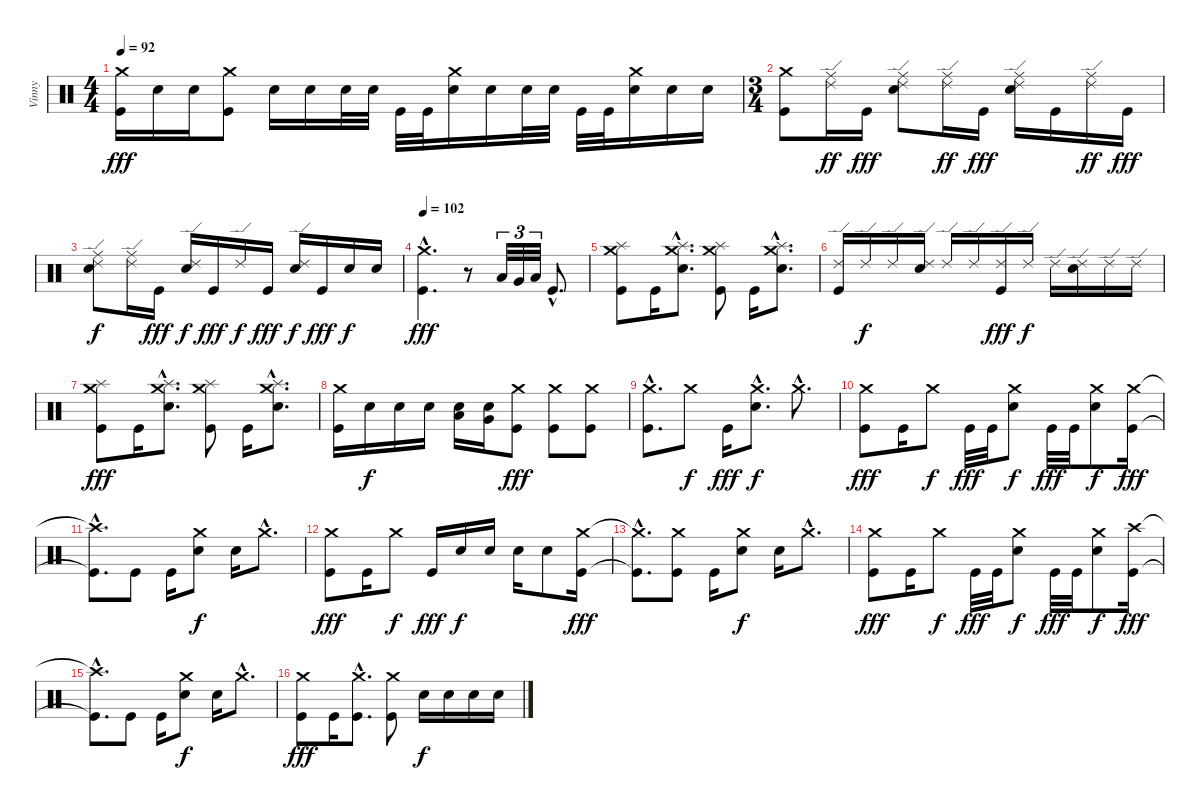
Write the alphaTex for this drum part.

\track ("Vinny" "Vinny") {instrument percussion}
\staff {score}
\articulation defaults
\ts (4 4)
\tempo 92
\clef neutral
\ks c
("Crash medium (hit)" "Kick (hit)").16{dy fff} "Electric Snare (hit)".16 "Electric Snare (hit)".16 ("Crash medium (hit)" "Kick (hit)").8 "Electric Snare (hit)".16 "Electric Snare (hit)".16 "Electric Snare (hit)".32 "Electric Snare (hit)".32 "Kick (hit)".32 "Kick (hit)".32 ("Crash medium (hit)" "Electric Snare (hit)").16 "Electric Snare (hit)".16 "Electric Snare (hit)".32 "Electric Snare (hit)".32 "Kick (hit)".32 "Kick (hit)".32 ("Crash medium (hit)" "Electric Snare (hit)").16 "Electric Snare (hit)".16 "Electric Snare (hit)".16 |
\ts (3 4)
\section ("" "")
("Crash medium (hit)" "Kick (hit)").8 ("Ride (middle)" "Ride (edge) 2").16{dy ff} "Kick (hit)".16{dy fff} ("Ride (middle)" "Ride (edge) 2" "Electric Snare (hit)").8 ("Ride (middle)" "Ride (edge) 2").16{dy ff} "Kick (hit)".16{dy fff} ("Ride (middle)" "Ride (edge) 2" "Electric Snare (hit)").16 "Kick (hit)".16 ("Ride (middle)" "Ride (edge) 2").16{dy ff} "Kick (hit)".16{dy fff} |
("Ride (middle)" "Ride (edge) 2" "Electric Snare (hit)").8{dy f} ("Ride (middle)" "Ride (edge) 2").16 "Kick (hit)".16{dy fff} ("Ride (edge) 2" "Electric Snare (hit)").16{dy f} "Kick (hit)".16{dy fff} "Ride (edge) 2".16{dy f} "Kick (hit)".16{dy fff} ("Ride (edge) 2" "Electric Snare (hit)").16{dy f} "Kick (hit)".16{dy fff} "Electric Snare (hit)".16{dy f} "Electric Snare (hit)".16 |
\tempo 102
("Crash medium (hit)"{hac} "Kick (hit)"{hac}).4{d dy fff} r.8 "Low Tom (hit)".32{tu (3 2)} "Very Low Tom (hit)".32{tu (3 2)} "Low Floor Tom (hit)".32{tu (3 2)} "Kick (hit)"{hac}.8{d} |
\section ("" "")
("Crash medium (hit)" "Splash (hit)" "Kick (hit)").8 "Kick (hit)".16 ("Crash medium (hit)"{hac} "Splash (hit)"{hac} "Electric Snare (hit)").8{d} ("Crash medium (hit)" "Splash (hit)" "Kick (hit)").8 "Kick (hit)".16 ("Crash medium (hit)"{hac} "Splash (hit)"{hac} "Electric Snare (hit)").8{d} |
("Ride (edge) 2" "Kick (hit)").16 "Ride (edge) 2".16{dy f} "Ride (edge) 2".16 ("Ride (edge) 2" "Electric Snare (hit)").16 "Ride (edge) 2".16 "Ride (edge) 2".16 ("Ride (edge) 2" "Kick (hit)").16{dy fff} "Ride (edge) 2".16{dy f} "Ride (edge) 2".16 ("Ride (edge) 2" "Electric Snare (hit)").16 "Ride (edge) 2".16 "Ride (edge) 2".16 |
("Crash medium (hit)" "Splash (hit)" "Kick (hit)").8{dy fff} "Kick (hit)".16 ("Crash medium (hit)"{hac} "Splash (hit)"{hac} "Electric Snare (hit)").8{d} ("Crash medium (hit)" "Splash (hit)" "Kick (hit)").8 "Kick (hit)".16 ("Crash medium (hit)"{hac} "Splash (hit)"{hac} "Electric Snare (hit)").8{d} |
("Crash medium (hit)" "Kick (hit)").16 "Electric Snare (hit)".16{dy f} "Electric Snare (hit)".16 "Electric Snare (hit)".16 ("Electric Snare (hit)" "Low Tom (hit)").16 ("Electric Snare (hit)" "Very Low Tom (hit)").16 ("Crash medium (hit)" "Kick (hit)").8{dy fff} ("Crash medium (hit)" "Kick (hit)").8 ("Crash medium (hit)" "Kick (hit)").8 |
\section ("" "")
("Crash medium (hit)"{hac} "Kick (hit)"{hac}).8{d} "Crash medium (hit)".8{dy f} "Kick (hit)".16{dy fff} ("Crash medium (hit)"{hac} "Electric Snare (hit)"{hac}).8{d dy f} "Crash medium (hit)"{hac}.8{d} |
("Crash medium (hit)" "Kick (hit)").8{dy fff} "Kick (hit)".16 "Crash medium (hit)".8{dy f} "Kick (hit)".32{dy fff} "Kick (hit)".32 ("Crash medium (hit)" "Electric Snare (hit)").8{dy f} "Kick (hit)".32{dy fff} "Kick (hit)".32 ("Crash medium (hit)" "Electric Snare (hit)").8{dy f} ("Crash medium (hit)" "Kick (hit)").16{dy fff} |
("Crash high (hit)"{hac t} "Kick (hit)"{hac t}).8{d} "Kick (hit)".8 "Kick (hit)".16 ("Crash medium (hit)" "Electric Snare (hit)").8{dy f} "Electric Snare (hit)".16 "Crash medium (hit)"{hac}.8{d} |
("Crash medium (hit)" "Kick (hit)").8{dy fff} "Kick (hit)".16 "Crash medium (hit)".8{dy f} "Kick (hit)".16{dy fff} "Electric Snare (hit)".16{dy f} "Electric Snare (hit)".16 "Electric Snare (hit)".16 "Electric Snare (hit)".8 ("Crash medium (hit)" "Kick (hit)").16{dy fff} |
("Crash medium (hit)"{hac t} "Kick (hit)"{hac t}).8{d} ("Crash medium (hit)" "Kick (hit)").8 "Kick (hit)".16 ("Crash medium (hit)" "Electric Snare (hit)").8{dy f} "Electric Snare (hit)".16 "Crash medium (hit)"{hac}.8{d} |
("Crash medium (hit)" "Kick (hit)").8{dy fff} "Kick (hit)".16 "Crash medium (hit)".8{dy f} "Kick (hit)".32{dy fff} "Kick (hit)".32 ("Crash medium (hit)" "Electric Snare (hit)").8{dy f} "Kick (hit)".32{dy fff} "Kick (hit)".32 ("Crash medium (hit)" "Electric Snare (hit)").8{dy f} ("Crash high (hit)" "Kick (hit)").16{dy fff} |
("Crash high (hit)"{hac t} "Kick (hit)"{hac t}).8{d} "Kick (hit)".8 "Kick (hit)".16 ("Crash medium (hit)" "Electric Snare (hit)").8{dy f} "Electric Snare (hit)".16 "Crash medium (hit)"{hac}.8{d} |
("Crash medium (hit)" "Kick (hit)").8{dy fff} "Kick (hit)".16 ("Crash medium (hit)"{hac} "Kick (hit)"{hac}).8{d} ("Crash medium (hit)" "Kick (hit)").8 "Electric Snare (hit)".16{dy f} "Electric Snare (hit)".16 "Electric Snare (hit)".16 "Electric Snare (hit)".16
